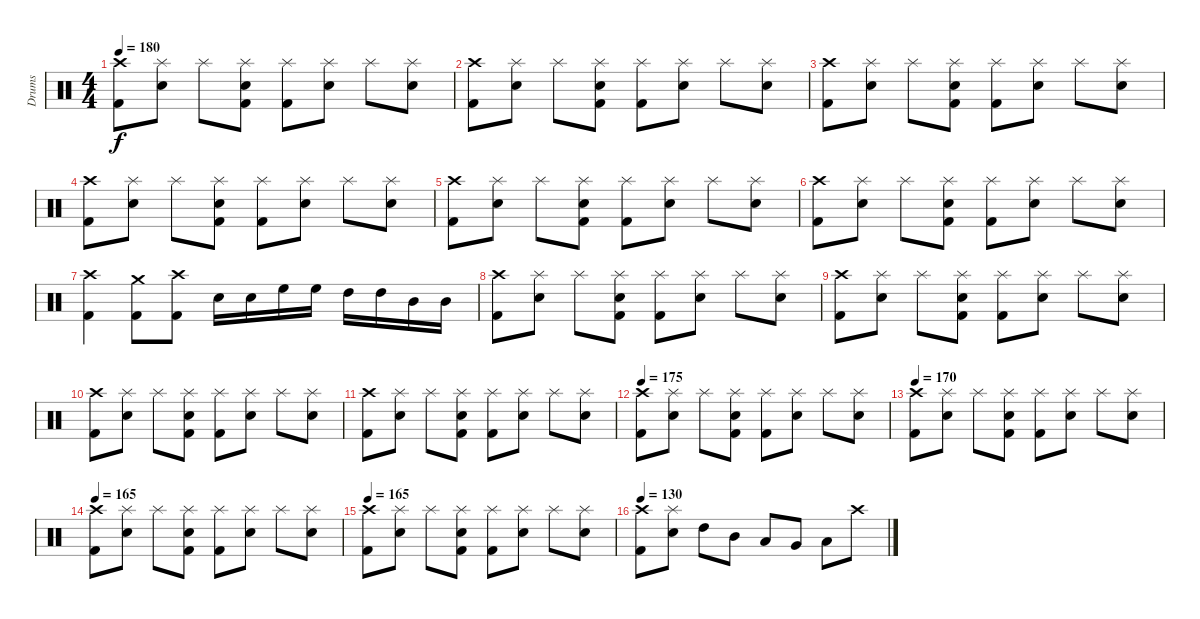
\track ("Drums" "Drums") {instrument percussion}
\staff {score}
\articulation defaults
\ts (4 4)
\tempo 180
\clef neutral
\ks c
("Crash high (hit)" "Kick (hit) 2").8{dy f} ("Splash (hit)" "Snare (hit) 2").8 "Splash (hit)".8 ("Splash (hit)" "Snare (hit) 2" "Kick (hit) 2").8 ("Splash (hit)" "Kick (hit) 2").8 ("Splash (hit)" "Snare (hit) 2").8 "Splash (hit)".8 ("Splash (hit)" "Snare (hit) 2").8 |
("Crash high (hit)" "Kick (hit) 2").8 ("Splash (hit)" "Snare (hit) 2").8 "Splash (hit)".8 ("Splash (hit)" "Snare (hit) 2" "Kick (hit) 2").8 ("Splash (hit)" "Kick (hit) 2").8 ("Splash (hit)" "Snare (hit) 2").8 "Splash (hit)".8 ("Splash (hit)" "Snare (hit) 2").8 |
("Crash high (hit)" "Kick (hit) 2").8 ("Splash (hit)" "Snare (hit) 2").8 "Splash (hit)".8 ("Splash (hit)" "Snare (hit) 2" "Kick (hit) 2").8 ("Splash (hit)" "Kick (hit) 2").8 ("Splash (hit)" "Snare (hit) 2").8 "Splash (hit)".8 ("Splash (hit)" "Snare (hit) 2").8 |
("Crash high (hit)" "Kick (hit) 2").8 ("Splash (hit)" "Snare (hit) 2").8 "Splash (hit)".8 ("Splash (hit)" "Snare (hit) 2" "Kick (hit) 2").8 ("Splash (hit)" "Kick (hit) 2").8 ("Splash (hit)" "Snare (hit) 2").8 "Splash (hit)".8 ("Splash (hit)" "Snare (hit) 2").8 |
("Crash high (hit)" "Kick (hit) 2").8 ("Splash (hit)" "Snare (hit) 2").8 "Splash (hit)".8 ("Splash (hit)" "Snare (hit) 2" "Kick (hit) 2").8 ("Splash (hit)" "Kick (hit) 2").8 ("Splash (hit)" "Snare (hit) 2").8 "Splash (hit)".8 ("Splash (hit)" "Snare (hit) 2").8 |
("Crash high (hit)" "Kick (hit) 2").8 ("Splash (hit)" "Snare (hit) 2").8 "Splash (hit)".8 ("Splash (hit)" "Snare (hit) 2" "Kick (hit) 2").8 ("Splash (hit)" "Kick (hit) 2").8 ("Splash (hit)" "Snare (hit) 2").8 "Splash (hit)".8 ("Splash (hit)" "Snare (hit) 2").8 |
("Crash high (hit)" "Kick (hit) 2").4 ("Crash medium (hit)" "Kick (hit) 2").8 ("Crash high (hit)" "Kick (hit) 2").8 "Snare (hit) 2".16 "Snare (hit) 2".16 "High Floor Tom (hit)".16 "High Floor Tom (hit)".16 "High Tom (hit)".16 "High Tom (hit)".16 "Mid Tom (hit)".16 "Mid Tom (hit)".16 |
("Crash high (hit)" "Kick (hit) 2").8 ("Splash (hit)" "Snare (hit) 2").8 "Splash (hit)".8 ("Splash (hit)" "Snare (hit) 2" "Kick (hit) 2").8 ("Splash (hit)" "Kick (hit) 2").8 ("Splash (hit)" "Snare (hit) 2").8 "Splash (hit)".8 ("Splash (hit)" "Snare (hit) 2").8 |
("Crash high (hit)" "Kick (hit) 2").8 ("Splash (hit)" "Snare (hit) 2").8 "Splash (hit)".8 ("Splash (hit)" "Snare (hit) 2" "Kick (hit) 2").8 ("Splash (hit)" "Kick (hit) 2").8 ("Splash (hit)" "Snare (hit) 2").8 "Splash (hit)".8 ("Splash (hit)" "Snare (hit) 2").8 |
("Crash high (hit)" "Kick (hit) 2").8 ("Splash (hit)" "Snare (hit) 2").8 "Splash (hit)".8 ("Splash (hit)" "Snare (hit) 2" "Kick (hit) 2").8 ("Splash (hit)" "Kick (hit) 2").8 ("Splash (hit)" "Snare (hit) 2").8 "Splash (hit)".8 ("Splash (hit)" "Snare (hit) 2").8 |
("Crash high (hit)" "Kick (hit) 2").8 ("Splash (hit)" "Snare (hit) 2").8 "Splash (hit)".8 ("Splash (hit)" "Snare (hit) 2" "Kick (hit) 2").8 ("Splash (hit)" "Kick (hit) 2").8 ("Splash (hit)" "Snare (hit) 2").8 "Splash (hit)".8 ("Splash (hit)" "Snare (hit) 2").8 |
\tempo 175
("Crash high (hit)" "Kick (hit) 2").8 ("Splash (hit)" "Snare (hit) 2").8 "Splash (hit)".8 ("Splash (hit)" "Snare (hit) 2" "Kick (hit) 2").8 ("Splash (hit)" "Kick (hit) 2").8 ("Splash (hit)" "Snare (hit) 2").8 "Splash (hit)".8 ("Splash (hit)" "Snare (hit) 2").8 |
\tempo 170
("Crash high (hit)" "Kick (hit) 2").8 ("Splash (hit)" "Snare (hit) 2").8 "Splash (hit)".8 ("Splash (hit)" "Snare (hit) 2" "Kick (hit) 2").8 ("Splash (hit)" "Kick (hit) 2").8 ("Splash (hit)" "Snare (hit) 2").8 "Splash (hit)".8 ("Splash (hit)" "Snare (hit) 2").8 |
\tempo 165
("Crash high (hit)" "Kick (hit) 2").8 ("Splash (hit)" "Snare (hit) 2").8 "Splash (hit)".8 ("Splash (hit)" "Snare (hit) 2" "Kick (hit) 2").8 ("Splash (hit)" "Kick (hit) 2").8 ("Splash (hit)" "Snare (hit) 2").8 "Splash (hit)".8 ("Splash (hit)" "Snare (hit) 2").8 |
\tempo 160
\tempo 165
("Crash high (hit)" "Kick (hit) 2").8 ("Splash (hit)" "Snare (hit) 2").8 "Splash (hit)".8 ("Splash (hit)" "Snare (hit) 2" "Kick (hit) 2").8 ("Splash (hit)" "Kick (hit) 2").8 ("Splash (hit)" "Snare (hit) 2").8 "Splash (hit)".8 ("Splash (hit)" "Snare (hit) 2").8 |
\tempo 130
("Crash high (hit)" "Kick (hit) 2").8 ("Splash (hit)" "Snare (hit) 2").8 "High Tom (hit)".8 "Mid Tom (hit)".8 "Low Tom (hit)".8 "Very Low Tom (hit)".8 "Low Floor Tom (hit)".8 "Crash high (hit)".8
